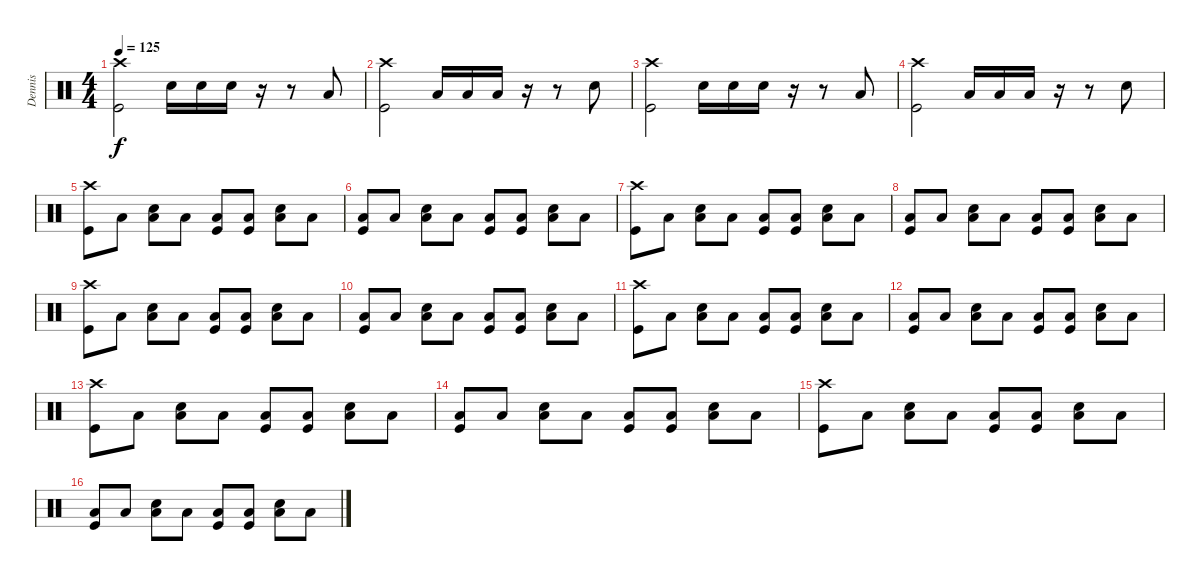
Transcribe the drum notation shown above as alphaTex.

\track ("Dennis" "Dennis") {instrument percussion}
\staff {score}
\articulation defaults
\ts (4 4)
\tempo 125
\clef neutral
\ks c
("Kick (hit)" "Crash high (hit)").2{dy f} "Electric Snare (hit)".16 "Electric Snare (hit)".16 "Electric Snare (hit)".16 r.16 r.8 "Low Tom (hit)".8 |
("Kick (hit)" "Crash high (hit)").2 "Low Tom (hit)".16 "Low Tom (hit)".16 "Low Tom (hit)".16 r.16 r.8 "Electric Snare (hit)".8 |
("Kick (hit)" "Crash high (hit)").2 "Electric Snare (hit)".16 "Electric Snare (hit)".16 "Electric Snare (hit)".16 r.16 r.8 "Low Tom (hit)".8 |
("Kick (hit)" "Crash high (hit)").2 "Low Tom (hit)".16 "Low Tom (hit)".16 "Low Tom (hit)".16 r.16 r.8 "Electric Snare (hit)".8 |
("Kick (hit)" "Crash high (hit)").8 "Low Floor Tom (hit)".8 ("Electric Snare (hit)" "Low Floor Tom (hit)").8 "Low Floor Tom (hit)".8 ("Kick (hit)" "Low Floor Tom (hit)").8 ("Kick (hit)" "Low Floor Tom (hit)").8 ("Electric Snare (hit)" "Low Floor Tom (hit)").8 "Low Floor Tom (hit)".8 |
("Kick (hit)" "Low Floor Tom (hit)").8 "Low Floor Tom (hit)".8 ("Electric Snare (hit)" "Low Floor Tom (hit)").8 "Low Floor Tom (hit)".8 ("Kick (hit)" "Low Floor Tom (hit)").8 ("Kick (hit)" "Low Floor Tom (hit)").8 ("Electric Snare (hit)" "Low Floor Tom (hit)").8 "Low Floor Tom (hit)".8 |
("Kick (hit)" "Crash high (hit)").8 "Low Floor Tom (hit)".8 ("Electric Snare (hit)" "Low Floor Tom (hit)").8 "Low Floor Tom (hit)".8 ("Kick (hit)" "Low Floor Tom (hit)").8 ("Kick (hit)" "Low Floor Tom (hit)").8 ("Electric Snare (hit)" "Low Floor Tom (hit)").8 "Low Floor Tom (hit)".8 |
("Kick (hit)" "Low Floor Tom (hit)").8 "Low Floor Tom (hit)".8 ("Electric Snare (hit)" "Low Floor Tom (hit)").8 "Low Floor Tom (hit)".8 ("Kick (hit)" "Low Floor Tom (hit)").8 ("Kick (hit)" "Low Floor Tom (hit)").8 ("Electric Snare (hit)" "Low Floor Tom (hit)").8 "Low Floor Tom (hit)".8 |
("Kick (hit)" "Crash high (hit)").8 "Low Floor Tom (hit)".8 ("Electric Snare (hit)" "Low Floor Tom (hit)").8 "Low Floor Tom (hit)".8 ("Kick (hit)" "Low Floor Tom (hit)").8 ("Kick (hit)" "Low Floor Tom (hit)").8 ("Electric Snare (hit)" "Low Floor Tom (hit)").8 "Low Floor Tom (hit)".8 |
("Kick (hit)" "Low Floor Tom (hit)").8 "Low Floor Tom (hit)".8 ("Electric Snare (hit)" "Low Floor Tom (hit)").8 "Low Floor Tom (hit)".8 ("Kick (hit)" "Low Floor Tom (hit)").8 ("Kick (hit)" "Low Floor Tom (hit)").8 ("Electric Snare (hit)" "Low Floor Tom (hit)").8 "Low Floor Tom (hit)".8 |
("Kick (hit)" "Crash high (hit)").8 "Low Floor Tom (hit)".8 ("Electric Snare (hit)" "Low Floor Tom (hit)").8 "Low Floor Tom (hit)".8 ("Kick (hit)" "Low Floor Tom (hit)").8 ("Kick (hit)" "Low Floor Tom (hit)").8 ("Electric Snare (hit)" "Low Floor Tom (hit)").8 "Low Floor Tom (hit)".8 |
("Kick (hit)" "Low Floor Tom (hit)").8 "Low Floor Tom (hit)".8 ("Electric Snare (hit)" "Low Floor Tom (hit)").8 "Low Floor Tom (hit)".8 ("Kick (hit)" "Low Floor Tom (hit)").8 ("Kick (hit)" "Low Floor Tom (hit)").8 ("Electric Snare (hit)" "Low Floor Tom (hit)").8 "Low Floor Tom (hit)".8 |
("Kick (hit)" "Crash high (hit)").8 "Low Floor Tom (hit)".8 ("Electric Snare (hit)" "Low Floor Tom (hit)").8 "Low Floor Tom (hit)".8 ("Kick (hit)" "Low Floor Tom (hit)").8 ("Kick (hit)" "Low Floor Tom (hit)").8 ("Electric Snare (hit)" "Low Floor Tom (hit)").8 "Low Floor Tom (hit)".8 |
("Kick (hit)" "Low Floor Tom (hit)").8 "Low Floor Tom (hit)".8 ("Electric Snare (hit)" "Low Floor Tom (hit)").8 "Low Floor Tom (hit)".8 ("Kick (hit)" "Low Floor Tom (hit)").8 ("Kick (hit)" "Low Floor Tom (hit)").8 ("Electric Snare (hit)" "Low Floor Tom (hit)").8 "Low Floor Tom (hit)".8 |
("Kick (hit)" "Crash high (hit)").8 "Low Floor Tom (hit)".8 ("Electric Snare (hit)" "Low Floor Tom (hit)").8 "Low Floor Tom (hit)".8 ("Kick (hit)" "Low Floor Tom (hit)").8 ("Kick (hit)" "Low Floor Tom (hit)").8 ("Electric Snare (hit)" "Low Floor Tom (hit)").8 "Low Floor Tom (hit)".8 |
("Kick (hit)" "Low Floor Tom (hit)").8 "Low Floor Tom (hit)".8 ("Electric Snare (hit)" "Low Floor Tom (hit)").8 "Low Floor Tom (hit)".8 ("Kick (hit)" "Low Floor Tom (hit)").8 ("Kick (hit)" "Low Floor Tom (hit)").8 ("Electric Snare (hit)" "Low Floor Tom (hit)").8 "Low Floor Tom (hit)".8
